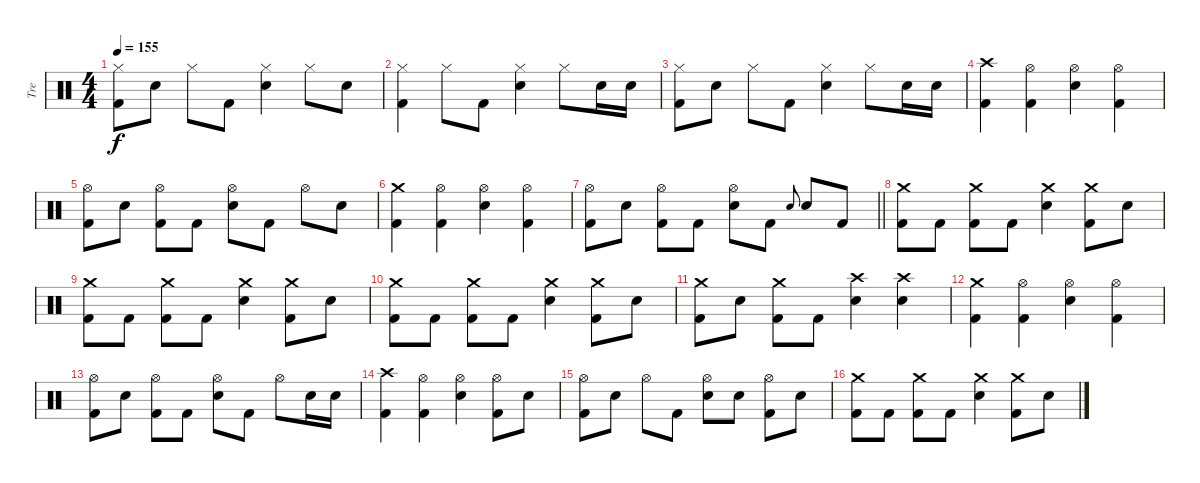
\track ("Tre" "Tre") {instrument percussion}
\staff {score}
\articulation defaults
\ts (4 4)
\tempo 155
\clef neutral
\ks c
("Hi-Hat (closed)" "Kick (hit) 2").8{dy f} "Snare (hit) 2".8 "Hi-Hat (closed)".8 "Kick (hit) 2".8 ("Hi-Hat (closed)" "Snare (hit) 2").4 "Hi-Hat (closed)".8 "Snare (hit) 2".8 |
("Hi-Hat (closed)" "Kick (hit) 2").4 "Hi-Hat (closed)".8 "Kick (hit) 2".8 ("Hi-Hat (closed)" "Snare (hit) 2").4 "Hi-Hat (closed)".8 "Snare (hit) 2".16 "Snare (hit) 2".16 |
("Hi-Hat (closed)" "Kick (hit) 2").8 "Snare (hit) 2".8 "Hi-Hat (closed)".8 "Kick (hit) 2".8 ("Hi-Hat (closed)" "Snare (hit) 2").4 "Hi-Hat (closed)".8 "Snare (hit) 2".16 "Snare (hit) 2".16 |
("Crash high (hit)" "Kick (hit) 2").4 ("Hi-Hat (open)" "Kick (hit) 2").4 ("Hi-Hat (open)" "Snare (hit) 2").4 ("Hi-Hat (open)" "Kick (hit) 2").4 |
("Hi-Hat (open)" "Kick (hit) 2").8 "Snare (hit) 2".8 ("Hi-Hat (open)" "Kick (hit) 2").8 "Kick (hit) 2".8 ("Hi-Hat (open)" "Snare (hit) 2").8 "Kick (hit) 2".8 "Hi-Hat (open)".8 "Snare (hit) 2".8 |
("Crash medium (hit)" "Kick (hit) 2").4 ("Hi-Hat (open)" "Kick (hit) 2").4 ("Hi-Hat (open)" "Snare (hit) 2").4 ("Hi-Hat (open)" "Kick (hit) 2").4 |
\barLineRight lightlight
("Hi-Hat (open)" "Kick (hit) 2").8 "Snare (hit) 2".8 ("Hi-Hat (open)" "Kick (hit) 2").8 "Kick (hit) 2".8 ("Hi-Hat (open)" "Snare (hit) 2").8 "Kick (hit) 2".8 "Snare (hit) 2".8{gr onbeat} "Snare (hit) 2".8 "Kick (hit) 2".8 |
("Crash medium (hit)" "Kick (hit) 2").8 "Kick (hit) 2".8 ("Crash medium (hit)" "Kick (hit) 2").8 "Kick (hit) 2".8 ("Crash medium (hit)" "Snare (hit) 2").4 ("Crash medium (hit)" "Kick (hit) 2").8 "Snare (hit) 2".8 |
("Crash medium (hit)" "Kick (hit) 2").8 "Kick (hit) 2".8 ("Crash medium (hit)" "Kick (hit) 2").8 "Kick (hit) 2".8 ("Crash medium (hit)" "Snare (hit) 2").4 ("Crash medium (hit)" "Kick (hit) 2").8 "Snare (hit) 2".8 |
("Crash medium (hit)" "Kick (hit) 2").8 "Kick (hit) 2".8 ("Crash medium (hit)" "Kick (hit) 2").8 "Kick (hit) 2".8 ("Crash medium (hit)" "Snare (hit) 2").4 ("Crash medium (hit)" "Kick (hit) 2").8 "Snare (hit) 2".8 |
("Crash medium (hit)" "Kick (hit) 2").8 "Snare (hit) 2".8 ("Crash medium (hit)" "Kick (hit) 2").8 "Kick (hit) 2".8 ("Crash high (hit)" "Snare (hit) 2").4 ("Crash high (hit)" "Snare (hit) 2").4 |
("Crash medium (hit)" "Kick (hit) 2").4 ("Hi-Hat (open)" "Kick (hit) 2").4 ("Hi-Hat (open)" "Snare (hit) 2").4 ("Hi-Hat (open)" "Kick (hit) 2").4 |
("Hi-Hat (open)" "Kick (hit) 2").8 "Snare (hit) 2".8 ("Hi-Hat (open)" "Kick (hit) 2").8 "Kick (hit) 2".8 ("Hi-Hat (open)" "Snare (hit) 2").8 "Kick (hit) 2".8 "Hi-Hat (open)".8 "Snare (hit) 2".16 "Snare (hit) 2".16 |
("Crash high (hit)" "Kick (hit) 2").4 ("Hi-Hat (open)" "Kick (hit) 2").4 ("Hi-Hat (open)" "Snare (hit) 2").4 ("Hi-Hat (open)" "Kick (hit) 2").8 "Snare (hit) 2".8 |
("Hi-Hat (open)" "Kick (hit) 2").8 "Snare (hit) 2".8 "Hi-Hat (open)".8 "Kick (hit) 2".8 ("Hi-Hat (open)" "Snare (hit) 2").8 "Snare (hit) 2".8 ("Hi-Hat (open)" "Kick (hit) 2").8 "Snare (hit) 2".8 |
("Crash medium (hit)" "Kick (hit) 2").8 "Kick (hit) 2".8 ("Crash medium (hit)" "Kick (hit) 2").8 "Kick (hit) 2".8 ("Crash medium (hit)" "Snare (hit) 2").4 ("Crash medium (hit)" "Kick (hit) 2").8 "Snare (hit) 2".8
